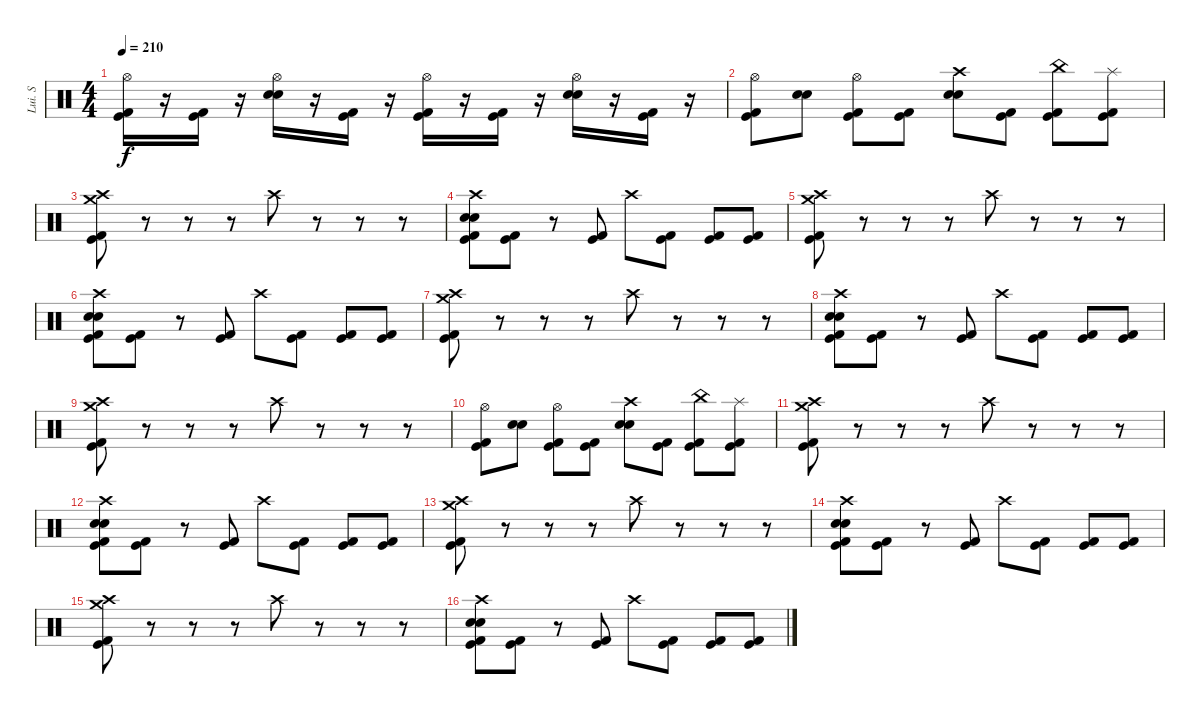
\track ("Lui. S" "Lui. S") {instrument percussion}
\staff {score}
\articulation defaults
\ts (4 4)
\tempo 210
\clef neutral
\ks c
("Hi-Hat (open)" "Kick (hit)" "Kick (hit) 2").16{dy f} r.16 ("Kick (hit) 2" "Kick (hit)").16 r.16 ("Hi-Hat (open)" "Electric Snare (hit)" "Snare (hit) 2").16 r.16 ("Kick (hit) 2" "Kick (hit)").16 r.16 ("Hi-Hat (open)" "Kick (hit) 2" "Kick (hit)").16 r.16 ("Kick (hit) 2" "Kick (hit)").16 r.16 ("Hi-Hat (open)" "Electric Snare (hit)" "Snare (hit) 2").16 r.16 ("Kick (hit)" "Kick (hit) 2").16 r.16 |
("Hi-Hat (open)" "Kick (hit) 2" "Kick (hit)").8 ("Electric Snare (hit)" "Snare (hit) 2").8 ("Hi-Hat (open)" "Kick (hit) 2" "Kick (hit)").8 ("Kick (hit) 2" "Kick (hit)").8 ("Crash high (hit)" "Electric Snare (hit)" "Snare (hit) 2").8 ("Kick (hit) 2" "Kick (hit)").8 ("China (hit)" "Kick (hit) 2" "Kick (hit)").8 ("Splash (hit)" "Kick (hit) 2" "Kick (hit)").8 |
("Crash medium (hit)" "Crash high (hit)" "Kick (hit) 2" "Kick (hit)").8 r.8 r.8 r.8 "Crash high (hit)".8 r.8 r.8 r.8 |
("Crash high (hit)" "Electric Snare (hit)" "Snare (hit) 2" "Kick (hit) 2" "Kick (hit)").8 ("Kick (hit) 2" "Kick (hit)").8 r.8 ("Kick (hit) 2" "Kick (hit)").8 "Crash high (hit)".8 ("Kick (hit) 2" "Kick (hit)").8 ("Kick (hit) 2" "Kick (hit)").8 ("Kick (hit) 2" "Kick (hit)").8 |
("Crash high (hit)" "Crash medium (hit)" "Kick (hit) 2" "Kick (hit)").8 r.8 r.8 r.8 "Crash high (hit)".8 r.8 r.8 r.8 |
("Crash high (hit)" "Electric Snare (hit)" "Snare (hit) 2" "Kick (hit) 2" "Kick (hit)").8 ("Kick (hit) 2" "Kick (hit)").8 r.8 ("Kick (hit) 2" "Kick (hit)").8 "Crash high (hit)".8 ("Kick (hit) 2" "Kick (hit)").8 ("Kick (hit) 2" "Kick (hit)").8 ("Kick (hit) 2" "Kick (hit)").8 |
("Crash medium (hit)" "Crash high (hit)" "Kick (hit) 2" "Kick (hit)").8 r.8 r.8 r.8 "Crash high (hit)".8 r.8 r.8 r.8 |
("Crash high (hit)" "Electric Snare (hit)" "Snare (hit) 2" "Kick (hit) 2" "Kick (hit)").8 ("Kick (hit) 2" "Kick (hit)").8 r.8 ("Kick (hit) 2" "Kick (hit)").8 "Crash high (hit)".8 ("Kick (hit) 2" "Kick (hit)").8 ("Kick (hit) 2" "Kick (hit)").8 ("Kick (hit) 2" "Kick (hit)").8 |
("Crash high (hit)" "Crash medium (hit)" "Kick (hit) 2" "Kick (hit)").8 r.8 r.8 r.8 "Crash high (hit)".8 r.8 r.8 r.8 |
("Hi-Hat (open)" "Kick (hit) 2" "Kick (hit)").8 ("Electric Snare (hit)" "Snare (hit) 2").8 ("Hi-Hat (open)" "Kick (hit) 2" "Kick (hit)").8 ("Kick (hit) 2" "Kick (hit)").8 ("Crash high (hit)" "Electric Snare (hit)" "Snare (hit) 2").8 ("Kick (hit) 2" "Kick (hit)").8 ("China (hit)" "Kick (hit) 2" "Kick (hit)").8 ("Splash (hit)" "Kick (hit) 2" "Kick (hit)").8 |
("Crash medium (hit)" "Crash high (hit)" "Kick (hit) 2" "Kick (hit)").8 r.8 r.8 r.8 "Crash high (hit)".8 r.8 r.8 r.8 |
("Crash high (hit)" "Electric Snare (hit)" "Snare (hit) 2" "Kick (hit) 2" "Kick (hit)").8 ("Kick (hit) 2" "Kick (hit)").8 r.8 ("Kick (hit) 2" "Kick (hit)").8 "Crash high (hit)".8 ("Kick (hit) 2" "Kick (hit)").8 ("Kick (hit) 2" "Kick (hit)").8 ("Kick (hit) 2" "Kick (hit)").8 |
("Crash high (hit)" "Crash medium (hit)" "Kick (hit) 2" "Kick (hit)").8 r.8 r.8 r.8 "Crash high (hit)".8 r.8 r.8 r.8 |
("Crash high (hit)" "Electric Snare (hit)" "Snare (hit) 2" "Kick (hit) 2" "Kick (hit)").8 ("Kick (hit) 2" "Kick (hit)").8 r.8 ("Kick (hit) 2" "Kick (hit)").8 "Crash high (hit)".8 ("Kick (hit) 2" "Kick (hit)").8 ("Kick (hit) 2" "Kick (hit)").8 ("Kick (hit) 2" "Kick (hit)").8 |
("Crash medium (hit)" "Crash high (hit)" "Kick (hit) 2" "Kick (hit)").8 r.8 r.8 r.8 "Crash high (hit)".8 r.8 r.8 r.8 |
("Crash high (hit)" "Electric Snare (hit)" "Snare (hit) 2" "Kick (hit) 2" "Kick (hit)").8 ("Kick (hit) 2" "Kick (hit)").8 r.8 ("Kick (hit) 2" "Kick (hit)").8 "Crash high (hit)".8 ("Kick (hit) 2" "Kick (hit)").8 ("Kick (hit) 2" "Kick (hit)").8 ("Kick (hit) 2" "Kick (hit)").8
